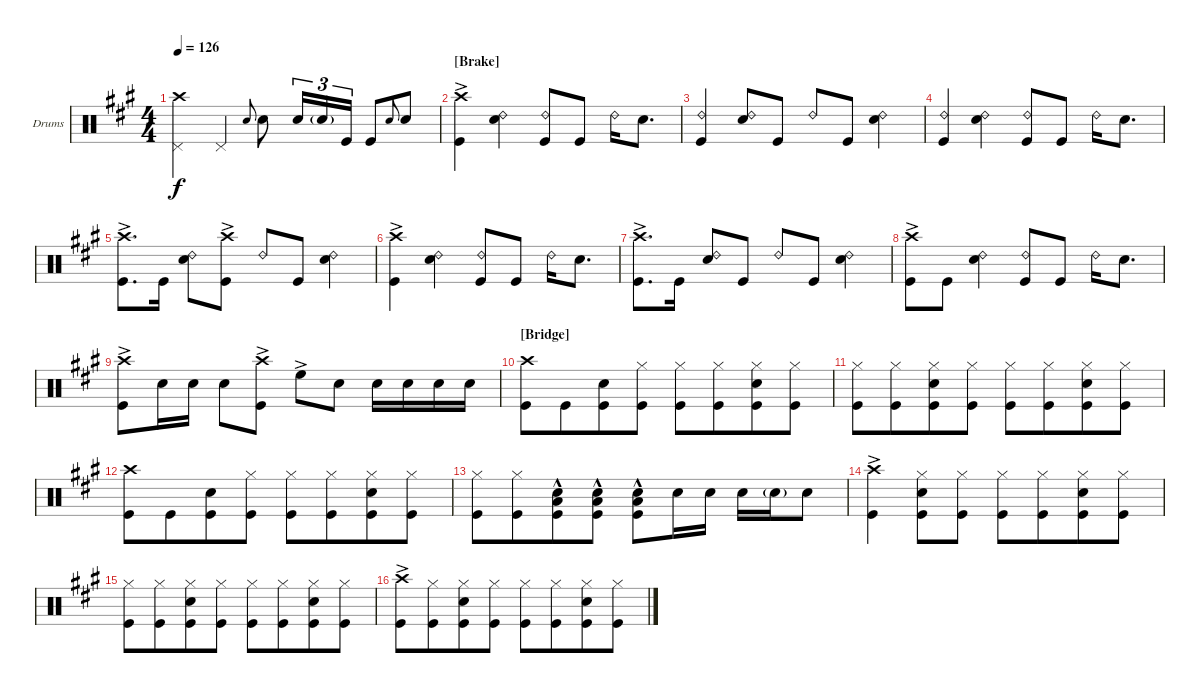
\defaultSystemsLayout 4
\bracketExtendMode groupsimilarinstruments
\firstSystemTrackNameOrientation horizontal
\otherSystemsTrackNameOrientation horizontal
\track ("Drums" "Drums") {instrument percussion}
\staff {score}
\articulation defaults
\ts (4 4)
\tempo 126
\clef neutral
\ks a
("Crash high (hit)"{t} "Pedal Hi-Hat (hit)").4{dy f} "Pedal Hi-Hat (hit)".4 "Snare (hit) 2".8{gr onbeat} "Snare (hit) 2".8 "Snare (hit) 2".16{tu (3 2)} "Snare (hit) 2"{g}.16{tu (3 2)} "Kick (hit)".16{tu (3 2)} "Kick (hit)".8 "Snare (hit) 2".8{gr onbeat} "Snare (hit) 2".8 |
\section ("" "[Brake]")
("Kick (hit)" "Crash high (hit)"{ac}).4 ("Snare (hit) 2" "Ride (bell) 2").4 ("Kick (hit)" "Ride (bell) 2").8 "Kick (hit)".8 "Ride (bell) 2".16 "Snare (hit) 2".8{d} |
("Kick (hit)" "Ride (bell) 2").4 ("Snare (hit) 2" "Ride (bell) 2").8 "Kick (hit)".8 "Ride (bell) 2".8 "Kick (hit)".8 ("Snare (hit) 2" "Ride (bell) 2").4 |
("Kick (hit)" "Ride (bell) 2").4 ("Snare (hit) 2" "Ride (bell) 2").4 ("Kick (hit)" "Ride (bell) 2").8 "Kick (hit)".8 "Ride (bell) 2".16 "Snare (hit) 2".8{d} |
("Kick (hit)" "Crash high (hit)"{ac}).8{d} "Kick (hit)".16 ("Snare (hit) 2" "Ride (bell) 2").8 ("Kick (hit)" "Crash high (hit)"{ac}).8 "Ride (bell) 2".8 "Kick (hit)".8 ("Snare (hit) 2" "Ride (bell) 2").4 |
("Kick (hit)" "Crash high (hit)"{ac}).4 ("Snare (hit) 2" "Ride (bell) 2").4 ("Kick (hit)" "Ride (bell) 2").8 "Kick (hit)".8 "Ride (bell) 2".16 "Snare (hit) 2".8{d} |
("Kick (hit)" "Crash high (hit)"{ac}).8{d} "Kick (hit)".16 ("Snare (hit) 2" "Ride (bell) 2").8 "Kick (hit)".8 "Ride (bell) 2".8 "Kick (hit)".8 ("Snare (hit) 2" "Ride (bell) 2").4 |
("Kick (hit)" "Crash high (hit)"{ac}).8 "Kick (hit)".8 ("Snare (hit) 2" "Ride (bell) 2").4 ("Kick (hit)" "Ride (bell) 2").8 "Kick (hit)".8 "Ride (bell) 2".16 "Snare (hit) 2".8{d} |
("Kick (hit)" "Crash high (hit)"{ac}).8 "Snare (hit) 2".16 "Snare (hit) 2".16 "Snare (hit) 2".8 ("Kick (hit)" "Crash high (hit)"{ac}).8 "High Floor Tom (hit)"{ac}.8 "Snare (hit) 2".8 "Snare (hit) 2".16 "Snare (hit) 2".16 "Snare (hit) 2".16 "Snare (hit) 2".16 |
\section ("" "[Bridge]")
("Kick (hit)" "Crash high (hit)").8 "Kick (hit)".8{beam merge} ("Kick (hit)" "Snare (hit) 2").8 ("Kick (hit)" "Hi-Hat (closed)").8 ("Kick (hit)" "Hi-Hat (closed)").8 ("Kick (hit)" "Hi-Hat (closed)").8{beam merge} ("Kick (hit)" "Snare (hit) 2" "Hi-Hat (closed)").8 ("Kick (hit)" "Hi-Hat (closed)").8 |
("Kick (hit)" "Hi-Hat (closed)").8 ("Kick (hit)" "Hi-Hat (closed)").8{beam merge} ("Kick (hit)" "Snare (hit) 2" "Hi-Hat (closed)").8 ("Kick (hit)" "Hi-Hat (closed)").8 ("Kick (hit)" "Hi-Hat (closed)").8 ("Kick (hit)" "Hi-Hat (closed)").8{beam merge} ("Kick (hit)" "Snare (hit) 2" "Hi-Hat (closed)").8 ("Kick (hit)" "Hi-Hat (closed)").8 |
("Kick (hit)" "Crash high (hit)").8 "Kick (hit)".8{beam merge} ("Kick (hit)" "Snare (hit) 2").8 ("Kick (hit)" "Hi-Hat (closed)").8 ("Kick (hit)" "Hi-Hat (closed)").8 ("Kick (hit)" "Hi-Hat (closed)").8{beam merge} ("Kick (hit)" "Snare (hit) 2" "Hi-Hat (closed)").8 ("Kick (hit)" "Hi-Hat (closed)").8 |
("Kick (hit)" "Hi-Hat (closed)").8 ("Kick (hit)" "Hi-Hat (closed)").8{beam merge} ("Kick (hit)" "Snare (hit) 2" "Low Tom (hit)"{hac}).8 ("Kick (hit)" "Snare (hit) 2" "Low Tom (hit)"{hac}).8 ("Kick (hit)" "Snare (hit) 2" "Low Tom (hit)"{hac}).8 "Snare (hit) 2".16 "Snare (hit) 2".16 "Snare (hit) 2".16 "Snare (hit) 2"{g}.16 "Snare (hit) 2".8 |
("Kick (hit)" "Crash high (hit)"{ac}).4 ("Kick (hit)" "Snare (hit) 2" "Hi-Hat (closed)").8 ("Kick (hit)" "Hi-Hat (closed)").8 ("Kick (hit)" "Hi-Hat (closed)").8 ("Kick (hit)" "Hi-Hat (closed)").8{beam merge} ("Kick (hit)" "Snare (hit) 2" "Hi-Hat (closed)").8 ("Kick (hit)" "Hi-Hat (closed)").8 |
("Kick (hit)" "Hi-Hat (closed)").8 ("Kick (hit)" "Hi-Hat (closed)").8{beam merge} ("Kick (hit)" "Snare (hit) 2" "Hi-Hat (closed)").8 ("Kick (hit)" "Hi-Hat (closed)").8 ("Kick (hit)" "Hi-Hat (closed)").8 ("Kick (hit)" "Hi-Hat (closed)").8{beam merge} ("Kick (hit)" "Snare (hit) 2" "Hi-Hat (closed)").8 ("Kick (hit)" "Hi-Hat (closed)").8 |
("Kick (hit)" "Crash high (hit)"{ac}).8 ("Kick (hit)" "Hi-Hat (closed)").8{beam merge} ("Kick (hit)" "Snare (hit) 2" "Hi-Hat (closed)").8 ("Kick (hit)" "Hi-Hat (closed)").8 ("Kick (hit)" "Hi-Hat (closed)").8 ("Kick (hit)" "Hi-Hat (closed)").8{beam merge} ("Kick (hit)" "Snare (hit) 2" "Hi-Hat (closed)").8 ("Kick (hit)" "Hi-Hat (closed)").8
